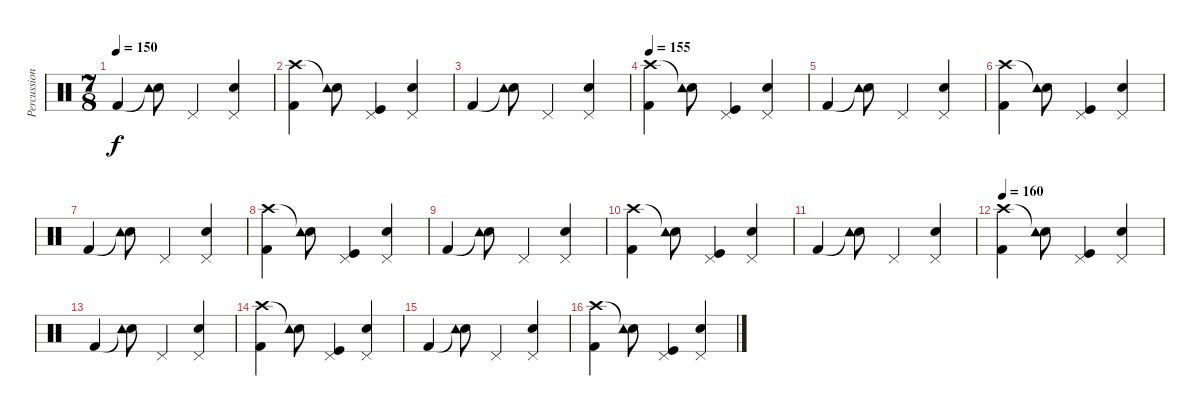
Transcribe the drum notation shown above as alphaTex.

\track ("Percussion" "Percussion") {instrument percussion}
\staff {score}
\articulation defaults
\ts (7 8)
\tempo 150
\clef neutral
\ks c "Kick (hit) 2".4{dy f}
("Snare (hit)"{t} "Tambourine (hit)").8 "Pedal Hi-Hat (hit)".4 ("Pedal Hi-Hat (hit)" "Snare (hit) 2").4 |
("Crash high (hit)" "Kick (hit) 2").4 ("Snare (hit)"{t} "Tambourine (hit)").8 ("Pedal Hi-Hat (hit)" "Kick (hit)").4 ("Pedal Hi-Hat (hit)" "Snare (hit) 2").4 |
"Kick (hit) 2".4 ("Snare (hit)"{t} "Tambourine (hit)").8 "Pedal Hi-Hat (hit)".4 ("Pedal Hi-Hat (hit)" "Snare (hit) 2").4 |
\tempo 155
("Crash high (hit)" "Kick (hit) 2").4 ("Snare (hit)"{t} "Tambourine (hit)").8 ("Pedal Hi-Hat (hit)" "Kick (hit)").4 ("Pedal Hi-Hat (hit)" "Snare (hit) 2").4 |
"Kick (hit) 2".4 ("Snare (hit)"{t} "Tambourine (hit)").8 "Pedal Hi-Hat (hit)".4 ("Pedal Hi-Hat (hit)" "Snare (hit) 2").4 |
("Crash high (hit)" "Kick (hit) 2").4 ("Snare (hit)"{t} "Tambourine (hit)").8 ("Pedal Hi-Hat (hit)" "Kick (hit)").4 ("Pedal Hi-Hat (hit)" "Snare (hit) 2").4 |
"Kick (hit) 2".4 ("Snare (hit)"{t} "Tambourine (hit)").8 "Pedal Hi-Hat (hit)".4 ("Pedal Hi-Hat (hit)" "Snare (hit) 2").4 |
("Crash high (hit)" "Kick (hit) 2").4 ("Snare (hit)"{t} "Tambourine (hit)").8 ("Pedal Hi-Hat (hit)" "Kick (hit)").4 ("Pedal Hi-Hat (hit)" "Snare (hit) 2").4 |
"Kick (hit) 2".4 ("Snare (hit)"{t} "Tambourine (hit)").8 "Pedal Hi-Hat (hit)".4 ("Pedal Hi-Hat (hit)" "Snare (hit) 2").4 |
("Crash high (hit)" "Kick (hit) 2").4 ("Snare (hit)"{t} "Tambourine (hit)").8 ("Pedal Hi-Hat (hit)" "Kick (hit)").4 ("Pedal Hi-Hat (hit)" "Snare (hit) 2").4 |
"Kick (hit) 2".4 ("Snare (hit)"{t} "Tambourine (hit)").8 "Pedal Hi-Hat (hit)".4 ("Pedal Hi-Hat (hit)" "Snare (hit) 2").4 |
\tempo 160
("Crash high (hit)" "Kick (hit) 2").4 ("Snare (hit)"{t} "Tambourine (hit)").8 ("Pedal Hi-Hat (hit)" "Kick (hit)").4 ("Pedal Hi-Hat (hit)" "Snare (hit) 2").4 |
"Kick (hit) 2".4 ("Snare (hit)"{t} "Tambourine (hit)").8 "Pedal Hi-Hat (hit)".4 ("Pedal Hi-Hat (hit)" "Snare (hit) 2").4 |
("Crash high (hit)" "Kick (hit) 2").4 ("Snare (hit)"{t} "Tambourine (hit)").8 ("Pedal Hi-Hat (hit)" "Kick (hit)").4 ("Pedal Hi-Hat (hit)" "Snare (hit) 2").4 |
"Kick (hit) 2".4 ("Snare (hit)"{t} "Tambourine (hit)").8 "Pedal Hi-Hat (hit)".4 ("Pedal Hi-Hat (hit)" "Snare (hit) 2").4 |
("Crash high (hit)" "Kick (hit) 2").4 ("Snare (hit)"{t} "Tambourine (hit)").8 ("Pedal Hi-Hat (hit)" "Kick (hit)").4 ("Pedal Hi-Hat (hit)" "Snare (hit) 2").4
